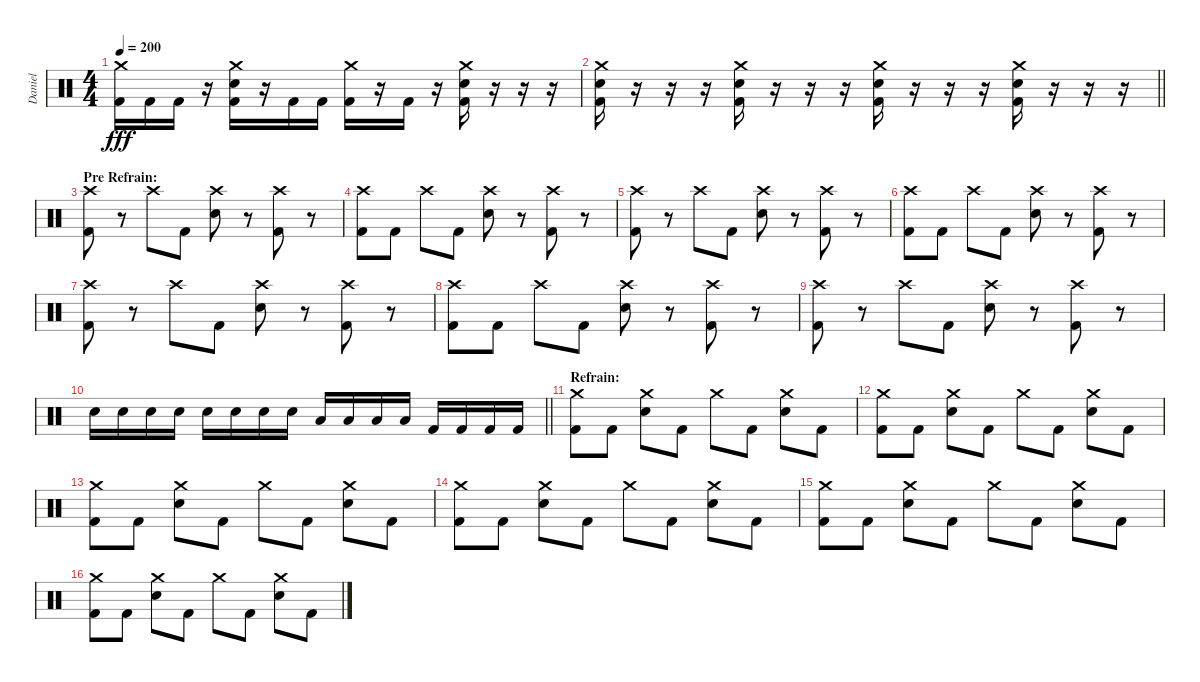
\track ("Daniel" "Daniel") {instrument percussion}
\staff {score}
\articulation defaults
\ts (4 4)
\tempo 200
\clef neutral
\ks c
("Crash medium (hit)" "Kick (hit) 2").16{dy fff} "Kick (hit) 2".16 "Kick (hit) 2".16 r.16 ("Crash medium (hit)" "Electric Snare (hit)" "Kick (hit) 2").16 r.16 "Kick (hit) 2".16 "Kick (hit) 2".16 ("Crash medium (hit)" "Kick (hit) 2").16 r.16 "Kick (hit) 2".16 r.16 ("Crash medium (hit)" "Electric Snare (hit)" "Kick (hit) 2").16 r.16 r.16 r.16 |
\barLineRight lightlight
("Crash medium (hit)" "Electric Snare (hit)" "Kick (hit) 2").16 r.16 r.16 r.16 ("Crash medium (hit)" "Electric Snare (hit)" "Kick (hit) 2").16 r.16 r.16 r.16 ("Crash medium (hit)" "Electric Snare (hit)" "Kick (hit) 2").16 r.16 r.16 r.16 ("Crash medium (hit)" "Electric Snare (hit)" "Kick (hit) 2").16 r.16 r.16 r.16 |
\section ("" "Pre Refrain:")
("Crash high (hit)" "Kick (hit) 2").8 r.8 "Crash high (hit)".8 "Kick (hit) 2".8 ("Crash high (hit)" "Electric Snare (hit)").8 r.8 ("Crash high (hit)" "Kick (hit) 2").8 r.8 |
("Crash high (hit)" "Kick (hit) 2").8 "Kick (hit) 2".8 "Crash high (hit)".8 "Kick (hit) 2".8 ("Crash high (hit)" "Electric Snare (hit)").8 r.8 ("Crash high (hit)" "Kick (hit) 2").8 r.8 |
("Crash high (hit)" "Kick (hit) 2").8 r.8 "Crash high (hit)".8 "Kick (hit) 2".8 ("Crash high (hit)" "Electric Snare (hit)").8 r.8 ("Crash high (hit)" "Kick (hit) 2").8 r.8 |
("Crash high (hit)" "Kick (hit) 2").8 "Kick (hit) 2".8 "Crash high (hit)".8 "Kick (hit) 2".8 ("Crash high (hit)" "Electric Snare (hit)").8 r.8 ("Crash high (hit)" "Kick (hit) 2").8 r.8 |
("Crash high (hit)" "Kick (hit) 2").8 r.8 "Crash high (hit)".8 "Kick (hit) 2".8 ("Crash high (hit)" "Electric Snare (hit)").8 r.8 ("Crash high (hit)" "Kick (hit) 2").8 r.8 |
("Crash high (hit)" "Kick (hit) 2").8 "Kick (hit) 2".8 "Crash high (hit)".8 "Kick (hit) 2".8 ("Crash high (hit)" "Electric Snare (hit)").8 r.8 ("Crash high (hit)" "Kick (hit) 2").8 r.8 |
("Crash high (hit)" "Kick (hit) 2").8 r.8 "Crash high (hit)".8 "Kick (hit) 2".8 ("Crash high (hit)" "Electric Snare (hit)").8 r.8 ("Crash high (hit)" "Kick (hit) 2").8 r.8 |
\barLineRight lightlight "Electric Snare (hit)".16 "Electric Snare (hit)".16 "Electric Snare (hit)".16 "Electric Snare (hit)".16 "Electric Snare (hit)".16 "Electric Snare (hit)".16 "Electric Snare (hit)".16 "Electric Snare (hit)".16 "Low Floor Tom (hit)".16 "Low Floor Tom (hit)".16 "Low Floor Tom (hit)".16 "Low Floor Tom (hit)".16 "Kick (hit) 2".16 "Kick (hit) 2".16 "Kick (hit) 2".16 "Kick (hit) 2".16
|
\section ("" "Refrain:")
("Crash medium (hit)" "Kick (hit) 2").8 "Kick (hit) 2".8 ("Crash medium (hit)" "Electric Snare (hit)").8 "Kick (hit) 2".8 "Crash medium (hit)".8 "Kick (hit) 2".8 ("Crash medium (hit)" "Electric Snare (hit)").8 "Kick (hit) 2".8 |
("Crash medium (hit)" "Kick (hit) 2").8 "Kick (hit) 2".8 ("Crash medium (hit)" "Electric Snare (hit)").8 "Kick (hit) 2".8 "Crash medium (hit)".8 "Kick (hit) 2".8 ("Crash medium (hit)" "Electric Snare (hit)").8 "Kick (hit) 2".8 |
("Crash medium (hit)" "Kick (hit) 2").8 "Kick (hit) 2".8 ("Crash medium (hit)" "Electric Snare (hit)").8 "Kick (hit) 2".8 "Crash medium (hit)".8 "Kick (hit) 2".8 ("Crash medium (hit)" "Electric Snare (hit)").8 "Kick (hit) 2".8 |
("Crash medium (hit)" "Kick (hit) 2").8 "Kick (hit) 2".8 ("Crash medium (hit)" "Electric Snare (hit)").8 "Kick (hit) 2".8 "Crash medium (hit)".8 "Kick (hit) 2".8 ("Crash medium (hit)" "Electric Snare (hit)").8 "Kick (hit) 2".8 |
("Crash medium (hit)" "Kick (hit) 2").8 "Kick (hit) 2".8 ("Crash medium (hit)" "Electric Snare (hit)").8 "Kick (hit) 2".8 "Crash medium (hit)".8 "Kick (hit) 2".8 ("Crash medium (hit)" "Electric Snare (hit)").8 "Kick (hit) 2".8 |
("Crash medium (hit)" "Kick (hit) 2").8 "Kick (hit) 2".8 ("Crash medium (hit)" "Electric Snare (hit)").8 "Kick (hit) 2".8 "Crash medium (hit)".8 "Kick (hit) 2".8 ("Crash medium (hit)" "Electric Snare (hit)").8 "Kick (hit) 2".8
